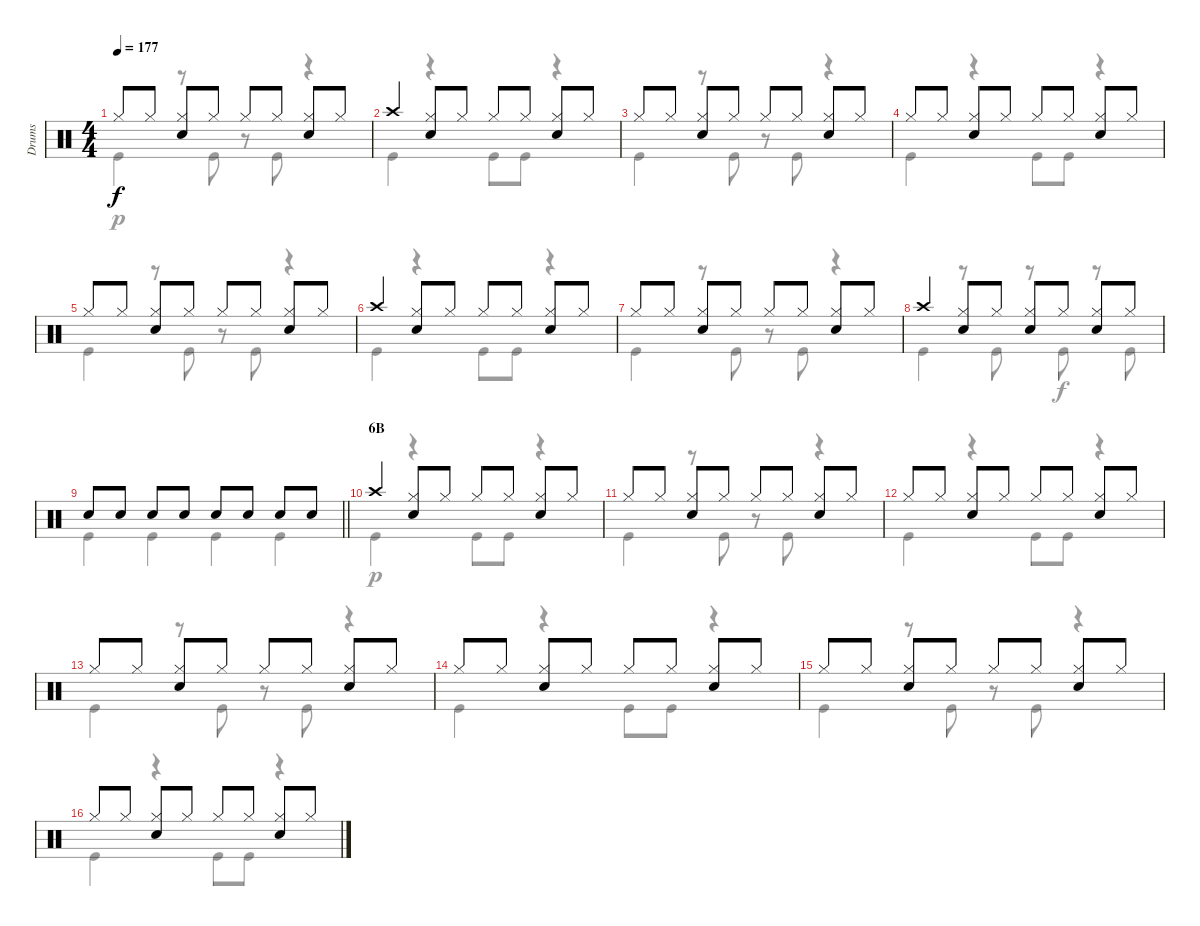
\track ("Drums" "Drums") {instrument percussion}
\staff {score}
\articulation defaults
\voice
\ts (4 4)
\tempo 177
\clef neutral
\ks c "Hi-Hat (closed)".8{dy f} "Hi-Hat (closed)".8
("Hi-Hat (closed)" "Snare (hit) 2").8 "Hi-Hat (closed)".8 "Hi-Hat (closed)".8 "Hi-Hat (closed)".8 ("Hi-Hat (closed)" "Snare (hit) 2").8 "Hi-Hat (closed)".8 |
"Crash high (hit)".4 ("Hi-Hat (closed)" "Snare (hit) 2").8 "Hi-Hat (closed)".8 "Hi-Hat (closed)".8 "Hi-Hat (closed)".8 ("Hi-Hat (closed)" "Snare (hit) 2").8 "Hi-Hat (closed)".8 |
"Hi-Hat (closed)".8 "Hi-Hat (closed)".8 ("Hi-Hat (closed)" "Snare (hit) 2").8 "Hi-Hat (closed)".8 "Hi-Hat (closed)".8 "Hi-Hat (closed)".8 ("Hi-Hat (closed)" "Snare (hit) 2").8 "Hi-Hat (closed)".8 |
"Hi-Hat (closed)".8 "Hi-Hat (closed)".8 ("Hi-Hat (closed)" "Snare (hit) 2").8 "Hi-Hat (closed)".8 "Hi-Hat (closed)".8 "Hi-Hat (closed)".8 ("Hi-Hat (closed)" "Snare (hit) 2").8 "Hi-Hat (closed)".8 |
"Hi-Hat (closed)".8 "Hi-Hat (closed)".8 ("Hi-Hat (closed)" "Snare (hit) 2").8 "Hi-Hat (closed)".8 "Hi-Hat (closed)".8 "Hi-Hat (closed)".8 ("Hi-Hat (closed)" "Snare (hit) 2").8 "Hi-Hat (closed)".8 |
"Crash high (hit)".4 ("Hi-Hat (closed)" "Snare (hit) 2").8 "Hi-Hat (closed)".8 "Hi-Hat (closed)".8 "Hi-Hat (closed)".8 ("Hi-Hat (closed)" "Snare (hit) 2").8 "Hi-Hat (closed)".8 |
"Hi-Hat (closed)".8 "Hi-Hat (closed)".8 ("Hi-Hat (closed)" "Snare (hit) 2").8 "Hi-Hat (closed)".8 "Hi-Hat (closed)".8 "Hi-Hat (closed)".8 ("Hi-Hat (closed)" "Snare (hit) 2").8 "Hi-Hat (closed)".8 |
"Crash high (hit)".4 ("Hi-Hat (closed)" "Snare (hit) 2").8 "Hi-Hat (closed)".8 ("Hi-Hat (closed)" "Snare (hit) 2").8 "Hi-Hat (closed)".8 ("Hi-Hat (closed)" "Snare (hit) 2").8 "Hi-Hat (closed)".8 |
\barLineRight lightlight "Snare (hit) 2".8 "Snare (hit) 2".8 "Snare (hit) 2".8 "Snare (hit) 2".8 "Snare (hit) 2".8 "Snare (hit) 2".8 "Snare (hit) 2".8 "Snare (hit) 2".8
|
\section ("" "6B")
"Crash high (hit)".4 ("Hi-Hat (closed)" "Snare (hit) 2").8 "Hi-Hat (closed)".8 "Hi-Hat (closed)".8 "Hi-Hat (closed)".8 ("Hi-Hat (closed)" "Snare (hit) 2").8 "Hi-Hat (closed)".8 |
"Hi-Hat (closed)".8 "Hi-Hat (closed)".8 ("Hi-Hat (closed)" "Snare (hit) 2").8 "Hi-Hat (closed)".8 "Hi-Hat (closed)".8 "Hi-Hat (closed)".8 ("Hi-Hat (closed)" "Snare (hit) 2").8 "Hi-Hat (closed)".8 |
"Hi-Hat (closed)".8 "Hi-Hat (closed)".8 ("Hi-Hat (closed)" "Snare (hit) 2").8 "Hi-Hat (closed)".8 "Hi-Hat (closed)".8 "Hi-Hat (closed)".8 ("Hi-Hat (closed)" "Snare (hit) 2").8 "Hi-Hat (closed)".8 |
"Hi-Hat (closed)".8 "Hi-Hat (closed)".8 ("Hi-Hat (closed)" "Snare (hit) 2").8 "Hi-Hat (closed)".8 "Hi-Hat (closed)".8 "Hi-Hat (closed)".8 ("Hi-Hat (closed)" "Snare (hit) 2").8 "Hi-Hat (closed)".8 |
"Hi-Hat (closed)".8 "Hi-Hat (closed)".8 ("Hi-Hat (closed)" "Snare (hit) 2").8 "Hi-Hat (closed)".8 "Hi-Hat (closed)".8 "Hi-Hat (closed)".8 ("Hi-Hat (closed)" "Snare (hit) 2").8 "Hi-Hat (closed)".8 |
"Hi-Hat (closed)".8 "Hi-Hat (closed)".8 ("Hi-Hat (closed)" "Snare (hit) 2").8 "Hi-Hat (closed)".8 "Hi-Hat (closed)".8 "Hi-Hat (closed)".8 ("Hi-Hat (closed)" "Snare (hit) 2").8 "Hi-Hat (closed)".8 |
"Hi-Hat (closed)".8 "Hi-Hat (closed)".8 ("Hi-Hat (closed)" "Snare (hit) 2").8 "Hi-Hat (closed)".8 "Hi-Hat (closed)".8 "Hi-Hat (closed)".8 ("Hi-Hat (closed)" "Snare (hit) 2").8 "Hi-Hat (closed)".8
\voice
\clef neutral
\ottava regular
\simile none
\ks c "Kick (hit)".4{dy p}
r.8 "Kick (hit)".8 r.8 "Kick (hit)".8 r.4 |
"Kick (hit)".4 r.4 "Kick (hit)".8 "Kick (hit)".8 r.4 |
"Kick (hit)".4 r.8 "Kick (hit)".8 r.8 "Kick (hit)".8 r.4 |
"Kick (hit)".4 r.4 "Kick (hit)".8 "Kick (hit)".8 r.4 |
"Kick (hit)".4 r.8 "Kick (hit)".8 r.8 "Kick (hit)".8 r.4 |
"Kick (hit)".4 r.4 "Kick (hit)".8 "Kick (hit)".8 r.4 |
"Kick (hit)".4 r.8 "Kick (hit)".8 r.8 "Kick (hit)".8 r.4 |
"Kick (hit)".4 r.8 "Kick (hit)".8 r.8 "Kick (hit)".8{dy f} r.8 "Kick (hit)".8 |
\barLineRight lightlight "Kick (hit)".4 "Kick (hit)".4 "Kick (hit)".4 "Kick (hit)".4
|
"Kick (hit)".4{dy p} r.4 "Kick (hit)".8 "Kick (hit)".8 r.4 |
"Kick (hit)".4 r.8 "Kick (hit)".8 r.8 "Kick (hit)".8 r.4 |
"Kick (hit)".4 r.4 "Kick (hit)".8 "Kick (hit)".8 r.4 |
"Kick (hit)".4 r.8 "Kick (hit)".8 r.8 "Kick (hit)".8 r.4 |
"Kick (hit)".4 r.4 "Kick (hit)".8 "Kick (hit)".8 r.4 |
"Kick (hit)".4 r.8 "Kick (hit)".8 r.8 "Kick (hit)".8 r.4 |
"Kick (hit)".4 r.4 "Kick (hit)".8 "Kick (hit)".8 r.4
